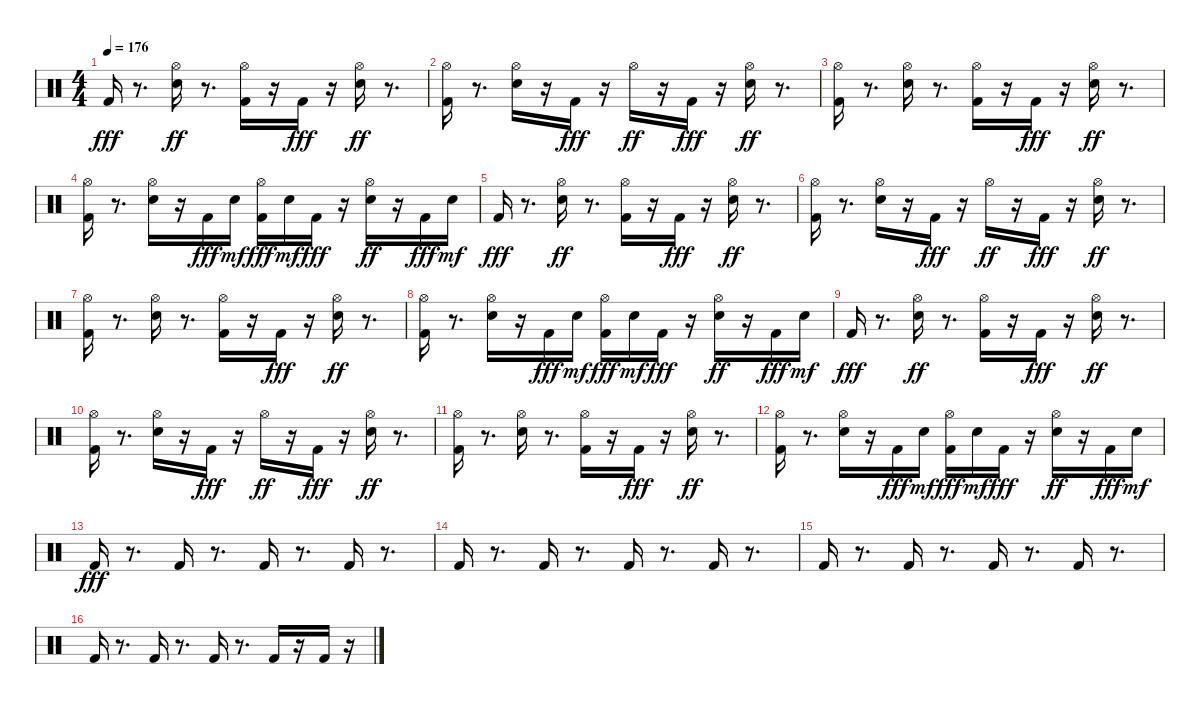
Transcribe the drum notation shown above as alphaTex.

\track "" {instrument percussion}
\staff {score}
\articulation defaults
\ts (4 4)
\tempo 176
\clef neutral
\ks c "Kick (hit) 2".16{dy fff}
r.8{d} ("Electric Snare (hit)" "Hi-Hat (open)").16{dy ff} r.8{d} ("Kick (hit) 2" "Hi-Hat (open)").16 r.16 "Kick (hit) 2".16{dy fff} r.16 ("Electric Snare (hit)" "Hi-Hat (open)").16{dy ff} r.8{d} |
("Kick (hit) 2" "Hi-Hat (open)").16 r.8{d} ("Electric Snare (hit)" "Hi-Hat (open)").16 r.16 "Kick (hit) 2".16{dy fff} r.16 "Hi-Hat (open)".16{dy ff} r.16 "Kick (hit) 2".16{dy fff} r.16 ("Electric Snare (hit)" "Hi-Hat (open)").16{dy ff} r.8{d} |
("Kick (hit) 2" "Hi-Hat (open)").16 r.8{d} ("Electric Snare (hit)" "Hi-Hat (open)").16 r.8{d} ("Kick (hit) 2" "Hi-Hat (open)").16 r.16 "Kick (hit) 2".16{dy fff} r.16 ("Electric Snare (hit)" "Hi-Hat (open)").16{dy ff} r.8{d} |
("Kick (hit) 2" "Hi-Hat (open)").16 r.8{d} ("Electric Snare (hit)" "Hi-Hat (open)").16 r.16 "Kick (hit) 2".16{dy fff} "Electric Snare (hit)".16{dy mf} ("Hi-Hat (open)" "Kick (hit) 2").16{dy fff} "Electric Snare (hit)".16{dy mf} "Kick (hit) 2".16{dy fff} r.16 ("Electric Snare (hit)" "Hi-Hat (open)").16{dy ff} r.16 "Kick (hit) 2".16{dy fff} "Electric Snare (hit)".16{dy mf} |
"Kick (hit) 2".16{dy fff} r.8{d} ("Electric Snare (hit)" "Hi-Hat (open)").16{dy ff} r.8{d} ("Kick (hit) 2" "Hi-Hat (open)").16 r.16 "Kick (hit) 2".16{dy fff} r.16 ("Electric Snare (hit)" "Hi-Hat (open)").16{dy ff} r.8{d} |
("Kick (hit) 2" "Hi-Hat (open)").16 r.8{d} ("Electric Snare (hit)" "Hi-Hat (open)").16 r.16 "Kick (hit) 2".16{dy fff} r.16 "Hi-Hat (open)".16{dy ff} r.16 "Kick (hit) 2".16{dy fff} r.16 ("Electric Snare (hit)" "Hi-Hat (open)").16{dy ff} r.8{d} |
("Kick (hit) 2" "Hi-Hat (open)").16 r.8{d} ("Electric Snare (hit)" "Hi-Hat (open)").16 r.8{d} ("Kick (hit) 2" "Hi-Hat (open)").16 r.16 "Kick (hit) 2".16{dy fff} r.16 ("Electric Snare (hit)" "Hi-Hat (open)").16{dy ff} r.8{d} |
("Kick (hit) 2" "Hi-Hat (open)").16 r.8{d} ("Electric Snare (hit)" "Hi-Hat (open)").16 r.16 "Kick (hit) 2".16{dy fff} "Electric Snare (hit)".16{dy mf} ("Hi-Hat (open)" "Kick (hit) 2").16{dy fff} "Electric Snare (hit)".16{dy mf} "Kick (hit) 2".16{dy fff} r.16 ("Electric Snare (hit)" "Hi-Hat (open)").16{dy ff} r.16 "Kick (hit) 2".16{dy fff} "Electric Snare (hit)".16{dy mf} |
"Kick (hit) 2".16{dy fff} r.8{d} ("Electric Snare (hit)" "Hi-Hat (open)").16{dy ff} r.8{d} ("Kick (hit) 2" "Hi-Hat (open)").16 r.16 "Kick (hit) 2".16{dy fff} r.16 ("Electric Snare (hit)" "Hi-Hat (open)").16{dy ff} r.8{d} |
("Kick (hit) 2" "Hi-Hat (open)").16 r.8{d} ("Electric Snare (hit)" "Hi-Hat (open)").16 r.16 "Kick (hit) 2".16{dy fff} r.16 "Hi-Hat (open)".16{dy ff} r.16 "Kick (hit) 2".16{dy fff} r.16 ("Electric Snare (hit)" "Hi-Hat (open)").16{dy ff} r.8{d} |
("Kick (hit) 2" "Hi-Hat (open)").16 r.8{d} ("Electric Snare (hit)" "Hi-Hat (open)").16 r.8{d} ("Kick (hit) 2" "Hi-Hat (open)").16 r.16 "Kick (hit) 2".16{dy fff} r.16 ("Electric Snare (hit)" "Hi-Hat (open)").16{dy ff} r.8{d} |
("Kick (hit) 2" "Hi-Hat (open)").16 r.8{d} ("Electric Snare (hit)" "Hi-Hat (open)").16 r.16 "Kick (hit) 2".16{dy fff} "Electric Snare (hit)".16{dy mf} ("Hi-Hat (open)" "Kick (hit) 2").16{dy fff} "Electric Snare (hit)".16{dy mf} "Kick (hit) 2".16{dy fff} r.16 ("Electric Snare (hit)" "Hi-Hat (open)").16{dy ff} r.16 "Kick (hit) 2".16{dy fff} "Electric Snare (hit)".16{dy mf} |
"Kick (hit) 2".16{dy fff} r.8{d} "Kick (hit) 2".16 r.8{d} "Kick (hit) 2".16 r.8{d} "Kick (hit) 2".16 r.8{d} |
"Kick (hit) 2".16 r.8{d} "Kick (hit) 2".16 r.8{d} "Kick (hit) 2".16 r.8{d} "Kick (hit) 2".16 r.8{d} |
"Kick (hit) 2".16 r.8{d} "Kick (hit) 2".16 r.8{d} "Kick (hit) 2".16 r.8{d} "Kick (hit) 2".16 r.8{d} |
"Kick (hit) 2".16 r.8{d} "Kick (hit) 2".16 r.8{d} "Kick (hit) 2".16 r.8{d} "Kick (hit) 2".16 r.16 "Kick (hit) 2".16 r.16
